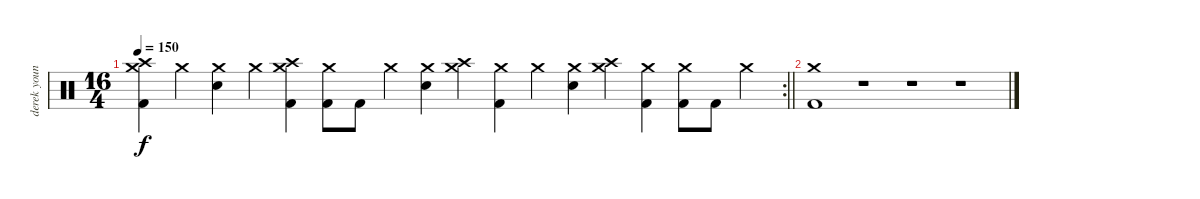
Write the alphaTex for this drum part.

\track ("derek youngsman" "derek youn") {instrument percussion}
\staff {score}
\articulation defaults
\rc 2
\ts (16 4)
\tempo 150
\clef neutral
\barLineRight lightlight
\ks c
("Crash medium (hit)" "Crash high (hit)" "Kick (hit) 2").4{dy f} "Crash medium (hit)".4 ("Crash medium (hit)" "Snare (hit) 2").4 "Crash medium (hit)".4 ("Crash medium (hit)" "Crash high (hit)" "Kick (hit) 2").4 ("Crash medium (hit)" "Kick (hit) 2").8 "Kick (hit) 2".8 "Crash medium (hit)".4 ("Crash medium (hit)" "Snare (hit) 2").4 ("Crash medium (hit)" "Crash high (hit)").4 ("Crash medium (hit)" "Kick (hit) 2").4 "Crash medium (hit)".4 ("Crash medium (hit)" "Snare (hit) 2").4 ("Crash medium (hit)" "Crash high (hit)").4 ("Crash medium (hit)" "Kick (hit) 2").4 ("Crash medium (hit)" "Kick (hit) 2").8 "Kick (hit) 2".8 "Crash medium (hit)".4 |
("Crash medium (hit)" "Kick (hit) 2").1 r.1 r.1 r.1
